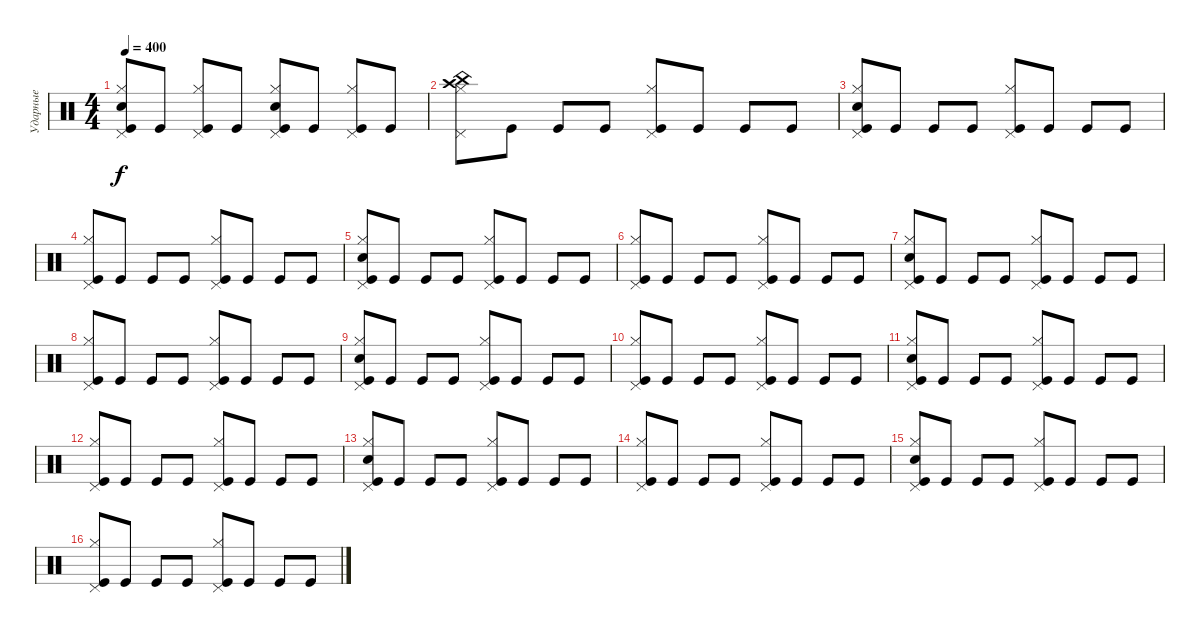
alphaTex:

\track ("Ударные" "Ударные") {instrument percussion}
\staff {score}
\articulation defaults
\ts (4 4)
\tempo 400
\clef neutral
\ks c
("Kick (hit)" "Electric Snare (hit)" "Hi-Hat (closed)" "Pedal Hi-Hat (hit)").8{dy f} "Kick (hit)".8 ("Kick (hit)" "Pedal Hi-Hat (hit)" "Hi-Hat (closed)").8 "Kick (hit)".8 ("Kick (hit)" "Electric Snare (hit)" "Hi-Hat (closed)" "Pedal Hi-Hat (hit)").8 "Kick (hit)".8 ("Kick (hit)" "Pedal Hi-Hat (hit)" "Hi-Hat (closed)").8 "Kick (hit)".8 |
("China (hit)" "Crash high (hit)" "Pedal Hi-Hat (hit)" "Hi-Hat (closed)").8 "Kick (hit)".8 "Kick (hit)".8 "Kick (hit)".8 ("Kick (hit)" "Hi-Hat (closed)" "Pedal Hi-Hat (hit)").8 "Kick (hit)".8 "Kick (hit)".8 "Kick (hit)".8 |
("Kick (hit)" "Electric Snare (hit)" "Hi-Hat (closed)" "Pedal Hi-Hat (hit)").8 "Kick (hit)".8 "Kick (hit)".8 "Kick (hit)".8 ("Kick (hit)" "Hi-Hat (closed)" "Pedal Hi-Hat (hit)").8 "Kick (hit)".8 "Kick (hit)".8 "Kick (hit)".8 |
("Kick (hit)" "Hi-Hat (closed)" "Pedal Hi-Hat (hit)").8 "Kick (hit)".8 "Kick (hit)".8 "Kick (hit)".8 ("Kick (hit)" "Pedal Hi-Hat (hit)" "Hi-Hat (closed)").8 "Kick (hit)".8 "Kick (hit)".8 "Kick (hit)".8 |
("Kick (hit)" "Electric Snare (hit)" "Hi-Hat (closed)" "Pedal Hi-Hat (hit)").8 "Kick (hit)".8 "Kick (hit)".8 "Kick (hit)".8 ("Kick (hit)" "Pedal Hi-Hat (hit)" "Hi-Hat (closed)").8 "Kick (hit)".8 "Kick (hit)".8 "Kick (hit)".8 |
("Kick (hit)" "Hi-Hat (closed)" "Pedal Hi-Hat (hit)").8 "Kick (hit)".8 "Kick (hit)".8 "Kick (hit)".8 ("Kick (hit)" "Pedal Hi-Hat (hit)" "Hi-Hat (closed)").8 "Kick (hit)".8 "Kick (hit)".8 "Kick (hit)".8 |
("Kick (hit)" "Electric Snare (hit)" "Hi-Hat (closed)" "Pedal Hi-Hat (hit)").8 "Kick (hit)".8 "Kick (hit)".8 "Kick (hit)".8 ("Kick (hit)" "Pedal Hi-Hat (hit)" "Hi-Hat (closed)").8 "Kick (hit)".8 "Kick (hit)".8 "Kick (hit)".8 |
("Kick (hit)" "Hi-Hat (closed)" "Pedal Hi-Hat (hit)").8 "Kick (hit)".8 "Kick (hit)".8 "Kick (hit)".8 ("Kick (hit)" "Pedal Hi-Hat (hit)" "Hi-Hat (closed)").8 "Kick (hit)".8 "Kick (hit)".8 "Kick (hit)".8 |
("Kick (hit)" "Electric Snare (hit)" "Hi-Hat (closed)" "Pedal Hi-Hat (hit)").8 "Kick (hit)".8 "Kick (hit)".8 "Kick (hit)".8 ("Kick (hit)" "Hi-Hat (closed)" "Pedal Hi-Hat (hit)").8 "Kick (hit)".8 "Kick (hit)".8 "Kick (hit)".8 |
("Kick (hit)" "Hi-Hat (closed)" "Pedal Hi-Hat (hit)").8 "Kick (hit)".8 "Kick (hit)".8 "Kick (hit)".8 ("Kick (hit)" "Pedal Hi-Hat (hit)" "Hi-Hat (closed)").8 "Kick (hit)".8 "Kick (hit)".8 "Kick (hit)".8 |
("Kick (hit)" "Electric Snare (hit)" "Hi-Hat (closed)" "Pedal Hi-Hat (hit)").8 "Kick (hit)".8 "Kick (hit)".8 "Kick (hit)".8 ("Kick (hit)" "Pedal Hi-Hat (hit)" "Hi-Hat (closed)").8 "Kick (hit)".8 "Kick (hit)".8 "Kick (hit)".8 |
("Kick (hit)" "Hi-Hat (closed)" "Pedal Hi-Hat (hit)").8 "Kick (hit)".8 "Kick (hit)".8 "Kick (hit)".8 ("Kick (hit)" "Pedal Hi-Hat (hit)" "Hi-Hat (closed)").8 "Kick (hit)".8 "Kick (hit)".8 "Kick (hit)".8 |
("Kick (hit)" "Electric Snare (hit)" "Hi-Hat (closed)" "Pedal Hi-Hat (hit)").8 "Kick (hit)".8 "Kick (hit)".8 "Kick (hit)".8 ("Kick (hit)" "Pedal Hi-Hat (hit)" "Hi-Hat (closed)").8 "Kick (hit)".8 "Kick (hit)".8 "Kick (hit)".8 |
("Kick (hit)" "Hi-Hat (closed)" "Pedal Hi-Hat (hit)").8 "Kick (hit)".8 "Kick (hit)".8 "Kick (hit)".8 ("Kick (hit)" "Pedal Hi-Hat (hit)" "Hi-Hat (closed)").8 "Kick (hit)".8 "Kick (hit)".8 "Kick (hit)".8 |
("Kick (hit)" "Electric Snare (hit)" "Hi-Hat (closed)" "Pedal Hi-Hat (hit)").8 "Kick (hit)".8 "Kick (hit)".8 "Kick (hit)".8 ("Kick (hit)" "Pedal Hi-Hat (hit)" "Hi-Hat (closed)").8 "Kick (hit)".8 "Kick (hit)".8 "Kick (hit)".8 |
("Kick (hit)" "Hi-Hat (closed)" "Pedal Hi-Hat (hit)").8 "Kick (hit)".8 "Kick (hit)".8 "Kick (hit)".8 ("Kick (hit)" "Pedal Hi-Hat (hit)" "Hi-Hat (closed)").8 "Kick (hit)".8 "Kick (hit)".8 "Kick (hit)".8
